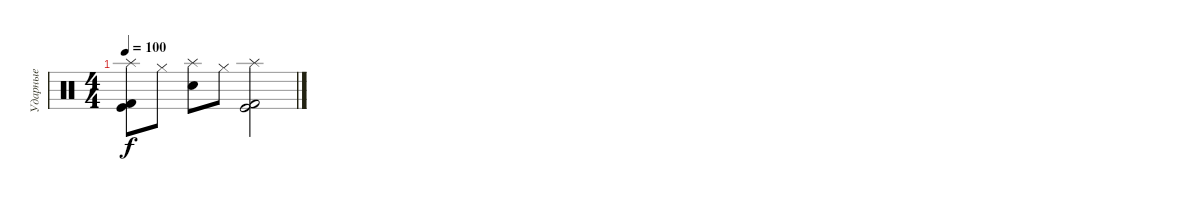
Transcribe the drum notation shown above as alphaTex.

\track ("Ударные" "Ударные") {instrument percussion}
\staff {score}
\articulation defaults
\ts (4 4)
\tempo 100
\clef neutral
\ks c
("Splash (hit)" "Kick (hit) 2" "Kick (hit)").8{dy f} "Hi-Hat (closed)".8 ("Splash (hit)" "Snare (hit) 2").8 "Hi-Hat (closed)".8 ("Splash (hit)" "Kick (hit) 2" "Kick (hit)").2
